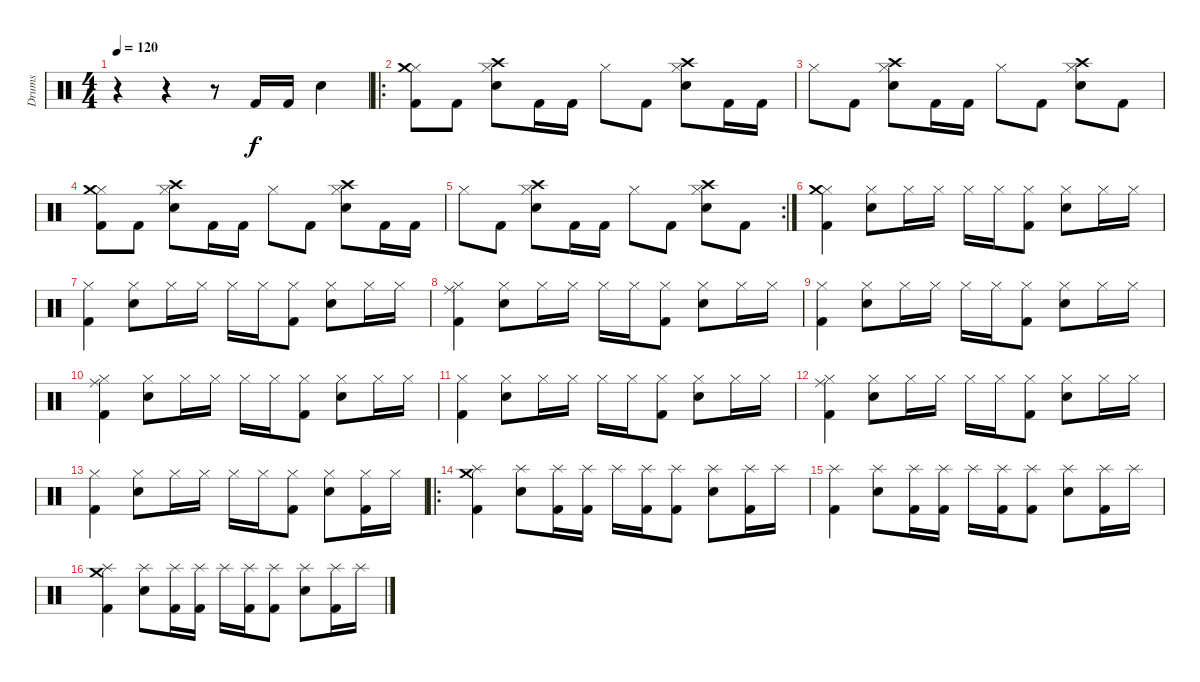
\track ("Drums" "Drums") {instrument percussion}
\staff {score}
\articulation defaults
\ts (4 4)
\tempo 120
\clef neutral
\ks c
r.4{dy f} r.4 r.8 "Kick (hit) 2".16 "Kick (hit) 2".16 "Snare (hit) 2".4 |
\ro
("Kick (hit) 2" "Hi-Hat (closed)" "Crash medium (hit)").8 "Kick (hit) 2".8 ("Snare (hit) 2" "Hi-Hat (closed)" "Crash high (hit)").8 "Kick (hit) 2".16 "Kick (hit) 2".16 "Hi-Hat (closed)".8 "Kick (hit) 2".8 ("Snare (hit) 2" "Hi-Hat (closed)" "Crash high (hit)").8 "Kick (hit) 2".16 "Kick (hit) 2".16 |
"Hi-Hat (closed)".8 "Kick (hit) 2".8 ("Snare (hit) 2" "Hi-Hat (closed)" "Crash high (hit)").8 "Kick (hit) 2".16 "Kick (hit) 2".16 "Hi-Hat (closed)".8 "Kick (hit) 2".8 ("Snare (hit) 2" "Hi-Hat (closed)" "Crash high (hit)").8 "Kick (hit) 2".8 |
("Kick (hit) 2" "Hi-Hat (closed)" "Crash medium (hit)").8 "Kick (hit) 2".8 ("Snare (hit) 2" "Hi-Hat (closed)" "Crash high (hit)").8 "Kick (hit) 2".16 "Kick (hit) 2".16 "Hi-Hat (closed)".8 "Kick (hit) 2".8 ("Snare (hit) 2" "Hi-Hat (closed)" "Crash high (hit)").8 "Kick (hit) 2".16 "Kick (hit) 2".16 |
\rc 2 "Hi-Hat (closed)".8 "Kick (hit) 2".8
("Snare (hit) 2" "Hi-Hat (closed)" "Crash high (hit)").8 "Kick (hit) 2".16 "Kick (hit) 2".16 "Hi-Hat (closed)".8 "Kick (hit) 2".8 ("Snare (hit) 2" "Hi-Hat (closed)" "Crash high (hit)").8 "Kick (hit) 2".8 |
("Kick (hit) 2" "Hi-Hat (closed)" "Crash medium (hit)").4 ("Snare (hit) 2" "Hi-Hat (closed)").8 "Hi-Hat (closed)".16 "Hi-Hat (closed)".16 "Hi-Hat (closed)".16 "Hi-Hat (closed)".16 ("Kick (hit) 2" "Hi-Hat (closed)").8 ("Snare (hit) 2" "Hi-Hat (closed)").8 "Hi-Hat (closed)".16 "Hi-Hat (closed)".16 |
("Kick (hit) 2" "Hi-Hat (closed)").4 ("Snare (hit) 2" "Hi-Hat (closed)").8 "Hi-Hat (closed)".16 "Hi-Hat (closed)".16 "Hi-Hat (closed)".16 "Hi-Hat (closed)".16 ("Kick (hit) 2" "Hi-Hat (closed)").8 ("Snare (hit) 2" "Hi-Hat (closed)").8 "Hi-Hat (closed)".16 "Hi-Hat (closed)".16 |
("Kick (hit) 2" "Hi-Hat (closed)" "Ride (middle)").4 ("Snare (hit) 2" "Hi-Hat (closed)").8 "Hi-Hat (closed)".16 "Hi-Hat (closed)".16 "Hi-Hat (closed)".16 "Hi-Hat (closed)".16 ("Kick (hit) 2" "Hi-Hat (closed)").8 ("Snare (hit) 2" "Hi-Hat (closed)").8 "Hi-Hat (closed)".16 "Hi-Hat (closed)".16 |
("Kick (hit) 2" "Hi-Hat (closed)").4 ("Snare (hit) 2" "Hi-Hat (closed)").8 "Hi-Hat (closed)".16 "Hi-Hat (closed)".16 "Hi-Hat (closed)".16 "Hi-Hat (closed)".16 ("Kick (hit) 2" "Hi-Hat (closed)").8 ("Snare (hit) 2" "Hi-Hat (closed)").8 "Hi-Hat (closed)".16 "Hi-Hat (closed)".16 |
("Kick (hit) 2" "Hi-Hat (closed)" "Ride (middle)").4 ("Snare (hit) 2" "Hi-Hat (closed)").8 "Hi-Hat (closed)".16 "Hi-Hat (closed)".16 "Hi-Hat (closed)".16 "Hi-Hat (closed)".16 ("Kick (hit) 2" "Hi-Hat (closed)").8 ("Snare (hit) 2" "Hi-Hat (closed)").8 "Hi-Hat (closed)".16 "Hi-Hat (closed)".16 |
("Kick (hit) 2" "Hi-Hat (closed)").4 ("Snare (hit) 2" "Hi-Hat (closed)").8 "Hi-Hat (closed)".16 "Hi-Hat (closed)".16 "Hi-Hat (closed)".16 "Hi-Hat (closed)".16 ("Kick (hit) 2" "Hi-Hat (closed)").8 ("Snare (hit) 2" "Hi-Hat (closed)").8 "Hi-Hat (closed)".16 "Hi-Hat (closed)".16 |
("Kick (hit) 2" "Hi-Hat (closed)" "Ride (middle)").4 ("Snare (hit) 2" "Hi-Hat (closed)").8 "Hi-Hat (closed)".16 "Hi-Hat (closed)".16 "Hi-Hat (closed)".16 "Hi-Hat (closed)".16 ("Kick (hit) 2" "Hi-Hat (closed)").8 ("Snare (hit) 2" "Hi-Hat (closed)").8 "Hi-Hat (closed)".16 "Hi-Hat (closed)".16 |
("Kick (hit) 2" "Hi-Hat (closed)").4 ("Snare (hit) 2" "Hi-Hat (closed)").8 "Hi-Hat (closed)".16 "Hi-Hat (closed)".16 "Hi-Hat (closed)".16 "Hi-Hat (closed)".16 ("Kick (hit) 2" "Hi-Hat (closed)").8 ("Snare (hit) 2" "Hi-Hat (closed)").8 ("Kick (hit) 2" "Hi-Hat (closed)").16 "Hi-Hat (closed)".16 |
\ro
("Kick (hit) 2" "Splash (hit)" "Crash medium (hit)").4 ("Snare (hit) 2" "Splash (hit)").8 ("Kick (hit) 2" "Splash (hit)").16 ("Kick (hit) 2" "Splash (hit)").16 "Splash (hit)".16 ("Kick (hit) 2" "Splash (hit)").16 ("Kick (hit) 2" "Splash (hit)").8 ("Snare (hit) 2" "Splash (hit)").8 ("Kick (hit) 2" "Splash (hit)").16 "Splash (hit)".16 |
("Kick (hit) 2" "Splash (hit)").4 ("Snare (hit) 2" "Splash (hit)").8 ("Kick (hit) 2" "Splash (hit)").16 ("Kick (hit) 2" "Splash (hit)").16 "Splash (hit)".16 ("Kick (hit) 2" "Splash (hit)").16 ("Kick (hit) 2" "Splash (hit)").8 ("Snare (hit) 2" "Splash (hit)").8 ("Kick (hit) 2" "Splash (hit)").16 "Splash (hit)".16 |
("Kick (hit) 2" "Splash (hit)" "Crash medium (hit)").4 ("Snare (hit) 2" "Splash (hit)").8 ("Kick (hit) 2" "Splash (hit)").16 ("Kick (hit) 2" "Splash (hit)").16 "Splash (hit)".16 ("Kick (hit) 2" "Splash (hit)").16 ("Kick (hit) 2" "Splash (hit)").8 ("Snare (hit) 2" "Splash (hit)").8 ("Kick (hit) 2" "Splash (hit)").16 "Splash (hit)".16
